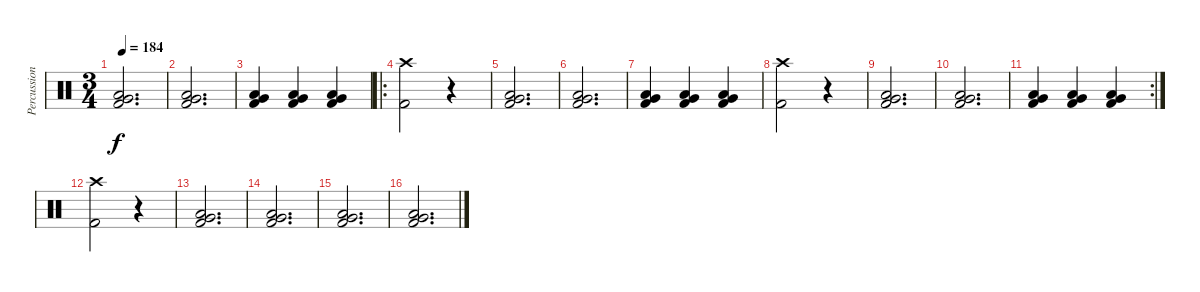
\track ("Percussions" "Percussion") {instrument percussion}
\staff {score}
\articulation defaults
\ts (3 4)
\tempo 184
\clef neutral
\ks c
("Low Floor Tom (hit)" "Very Low Tom (hit)" "Kick (hit) 2").2{d dy f} |
("Low Floor Tom (hit)" "Very Low Tom (hit)" "Kick (hit) 2").2{d} |
("Low Floor Tom (hit)" "Very Low Tom (hit)" "Kick (hit) 2").4 ("Low Floor Tom (hit)" "Very Low Tom (hit)" "Kick (hit) 2").4 ("Low Floor Tom (hit)" "Very Low Tom (hit)" "Kick (hit) 2").4 |
\ro
("Crash high (hit)" "Kick (hit) 2").2 r.4 |
("Low Floor Tom (hit)" "Very Low Tom (hit)" "Kick (hit) 2").2{d} |
("Low Floor Tom (hit)" "Very Low Tom (hit)" "Kick (hit) 2").2{d} |
("Low Floor Tom (hit)" "Very Low Tom (hit)" "Kick (hit) 2").4 ("Low Floor Tom (hit)" "Very Low Tom (hit)" "Kick (hit) 2").4 ("Low Floor Tom (hit)" "Very Low Tom (hit)" "Kick (hit) 2").4 |
("Crash high (hit)" "Kick (hit) 2").2 r.4 |
("Low Floor Tom (hit)" "Very Low Tom (hit)" "Kick (hit) 2").2{d} |
("Low Floor Tom (hit)" "Very Low Tom (hit)" "Kick (hit) 2").2{d} |
\rc 2
("Low Floor Tom (hit)" "Very Low Tom (hit)" "Kick (hit) 2").4 ("Low Floor Tom (hit)" "Very Low Tom (hit)" "Kick (hit) 2").4 ("Low Floor Tom (hit)" "Very Low Tom (hit)" "Kick (hit) 2").4 |
("Crash high (hit)" "Kick (hit) 2").2 r.4 |
("Low Floor Tom (hit)" "Very Low Tom (hit)" "Kick (hit) 2").2{d} |
("Low Floor Tom (hit)" "Very Low Tom (hit)" "Kick (hit) 2").2{d} |
("Low Floor Tom (hit)" "Very Low Tom (hit)" "Kick (hit) 2").2{d} |
("Low Floor Tom (hit)" "Very Low Tom (hit)" "Kick (hit) 2").2{d}
